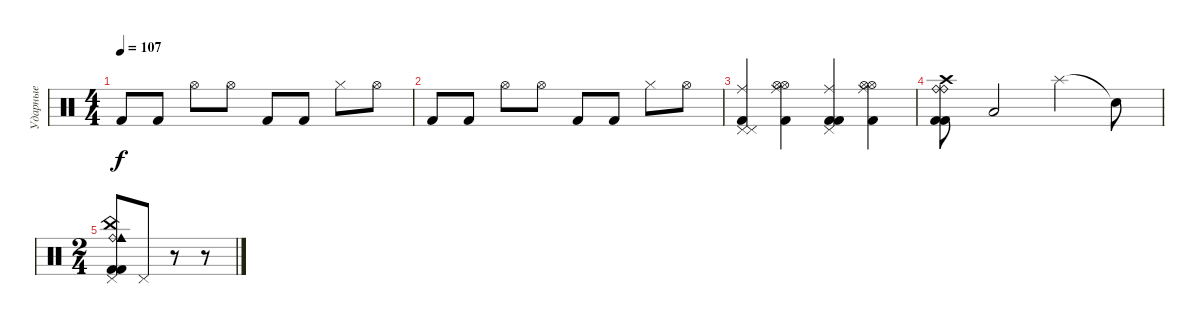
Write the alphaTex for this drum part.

\track ("Ударные" "Ударные") {instrument percussion}
\staff {score}
\articulation defaults
\ts (4 4)
\tempo 107
\clef neutral
\ks c "Kick (hit) 2".8{dy f volume 16} "Kick (hit) 2".8 "Hi-Hat (open)".8 "Hi-Hat (open)".8 "Kick (hit) 2".8 "Kick (hit) 2".8 "Hi-Hat (closed)".8 "Hi-Hat (open)".8
|
"Kick (hit) 2".8{volume 16} "Kick (hit) 2".8 "Hi-Hat (open)".8 "Hi-Hat (open)".8 "Kick (hit) 2".8 "Kick (hit) 2".8 "Hi-Hat (closed)".8 "Hi-Hat (open)".8 |
("Ride (middle)" "Pedal Hi-Hat (hit)" "Pedal Hi-Hat (hit)" "Kick (hit) 2").4{volume 16} ("Ride (middle)" "Hi-Hat (open)" "Hi-Hat (open)" "Kick (hit) 2").4 ("Ride (middle)" "Pedal Hi-Hat (hit)" "Kick (hit) 2" "Kick (hit) 2").4 ("Ride (middle)" "Hi-Hat (open)" "Hi-Hat (open)" "Kick (hit) 2").4 |
("Kick (hit) 2" "Kick (hit) 2" "Ride (bell)" "Ride (bell)" "Crash high (hit)").8 "Low Floor Tom (hit)".2 "Splash (hit)".4 "Snare (hit)"{t}.8 |
\ts (2 4)
("Ride (bell)" "China (hit)" "Pedal Hi-Hat (hit)" "Kick (hit) 2" "Kick (hit) 2" "Cowbell medium (hit)").8 "Pedal Hi-Hat (hit)".8 r.8 r.8
